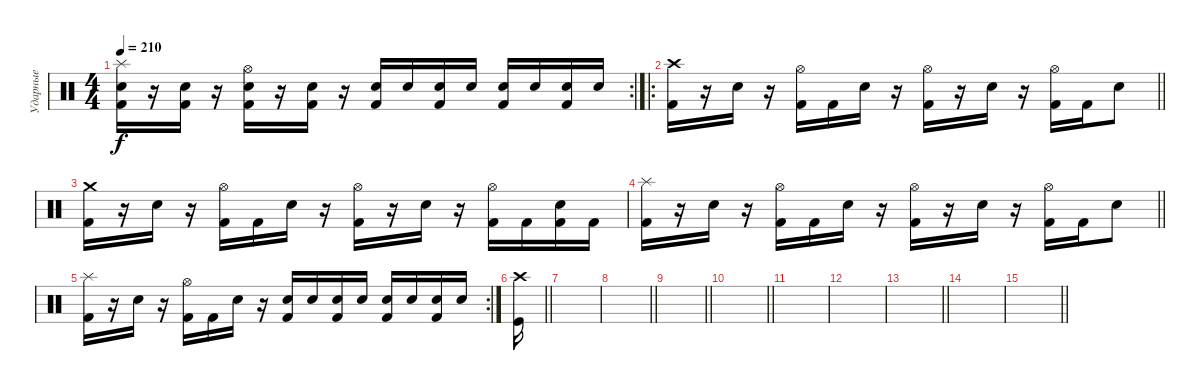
\track ("Ударные" "Ударные") {mute instrument percussion}
\staff {score}
\articulation defaults
\rc 2
\ts (4 4)
\tempo 210
\clef neutral
\ks c
("Splash (hit)" "Electric Snare (hit)" "Kick (hit) 2").16{dy f} r.16 ("Electric Snare (hit)" "Kick (hit) 2").16 r.16 ("Hi-Hat (open)" "Electric Snare (hit)" "Kick (hit) 2").16 r.16 ("Electric Snare (hit)" "Kick (hit) 2").16 r.16 ("Electric Snare (hit)" "Kick (hit) 2").16 "Electric Snare (hit)".16 ("Electric Snare (hit)" "Kick (hit) 2").16 "Electric Snare (hit)".16 ("Electric Snare (hit)" "Kick (hit) 2").16 "Electric Snare (hit)".16 ("Electric Snare (hit)" "Kick (hit) 2").16 "Electric Snare (hit)".16 |
\ro
\barLineRight lightlight
("Crash high (hit)" "Kick (hit) 2").16 r.16 "Electric Snare (hit)".16 r.16 ("Hi-Hat (open)" "Kick (hit) 2").16 "Kick (hit) 2".16 "Electric Snare (hit)".16 r.16 ("Hi-Hat (open)" "Kick (hit) 2").16 r.16 "Electric Snare (hit)".16 r.16 ("Hi-Hat (open)" "Kick (hit) 2").16 "Kick (hit) 2".16 "Electric Snare (hit)".8 |
("Crash medium (hit)" "Kick (hit) 2").16 r.16 "Electric Snare (hit)".16 r.16 ("Hi-Hat (open)" "Kick (hit) 2").16 "Kick (hit) 2".16 "Electric Snare (hit)".16 r.16 ("Hi-Hat (open)" "Kick (hit) 2").16 r.16 "Electric Snare (hit)".16 r.16 ("Hi-Hat (open)" "Kick (hit) 2").16 "Kick (hit) 2".16 ("Electric Snare (hit)" "Kick (hit) 2").16 "Kick (hit) 2".16 |
\barLineRight lightlight
("Splash (hit)" "Kick (hit) 2").16 r.16 "Electric Snare (hit)".16 r.16 ("Hi-Hat (open)" "Kick (hit) 2").16 "Kick (hit) 2".16 "Electric Snare (hit)".16 r.16 ("Hi-Hat (open)" "Kick (hit) 2").16 r.16 "Electric Snare (hit)".16 r.16 ("Hi-Hat (open)" "Kick (hit) 2").16 "Kick (hit) 2".16 "Electric Snare (hit)".8 |
\rc 2
("Splash (hit)" "Kick (hit) 2").16 r.16 "Electric Snare (hit)".16 r.16 ("Hi-Hat (open)" "Kick (hit) 2").16 "Kick (hit) 2".16 "Electric Snare (hit)".16 r.16 ("Electric Snare (hit)" "Kick (hit) 2").16 "Electric Snare (hit)".16 ("Electric Snare (hit)" "Kick (hit) 2").16 "Electric Snare (hit)".16 ("Electric Snare (hit)" "Kick (hit) 2").16 "Electric Snare (hit)".16 ("Electric Snare (hit)" "Kick (hit) 2").16 "Electric Snare (hit)".16 |
\barLineRight lightlight
("Crash high (hit)" "Kick (hit)").16 |
|
\barLineRight lightlight
|
\barLineRight lightlight
|
\barLineRight lightlight
|
|
|
\barLineRight lightlight
|
|
\barLineRight lightlight
